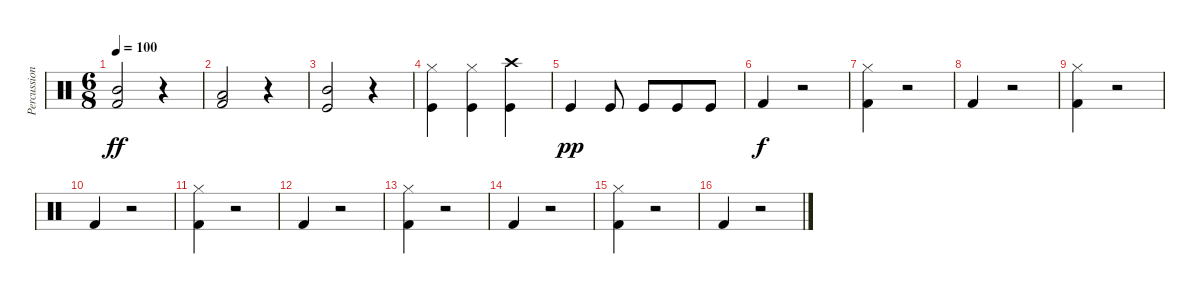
\track ("Percussion" "Percussion") {instrument percussion}
\staff {score}
\articulation defaults
\ts (6 8)
\tempo 100
\clef neutral
\ks c
("Kick (hit) 2" "Mid Tom (hit)").2{dy ff} r.4 |
("Kick (hit) 2" "Low Tom (hit)").2 r.4 |
("Kick (hit)" "Mid Tom (hit)").2 r.4 |
("Kick (hit)" "Hi-Hat (closed)").4 ("Kick (hit)" "Hi-Hat (closed)").4 ("Kick (hit)" "Crash high (hit)").4 |
"Kick (hit)".4{dy pp} "Kick (hit)".8 "Kick (hit)".8 "Kick (hit)".8 "Kick (hit)".8 |
"Kick (hit) 2".4{dy f} r.2 |
("Kick (hit) 2" "Hi-Hat (closed)").4 r.2 |
"Kick (hit) 2".4 r.2 |
("Kick (hit) 2" "Hi-Hat (closed)").4 r.2 |
"Kick (hit) 2".4 r.2 |
("Kick (hit) 2" "Hi-Hat (closed)").4 r.2 |
"Kick (hit) 2".4 r.2 |
("Kick (hit) 2" "Hi-Hat (closed)").4 r.2 |
"Kick (hit) 2".4 r.2 |
("Kick (hit) 2" "Hi-Hat (closed)").4 r.2 |
"Kick (hit) 2".4 r.2
